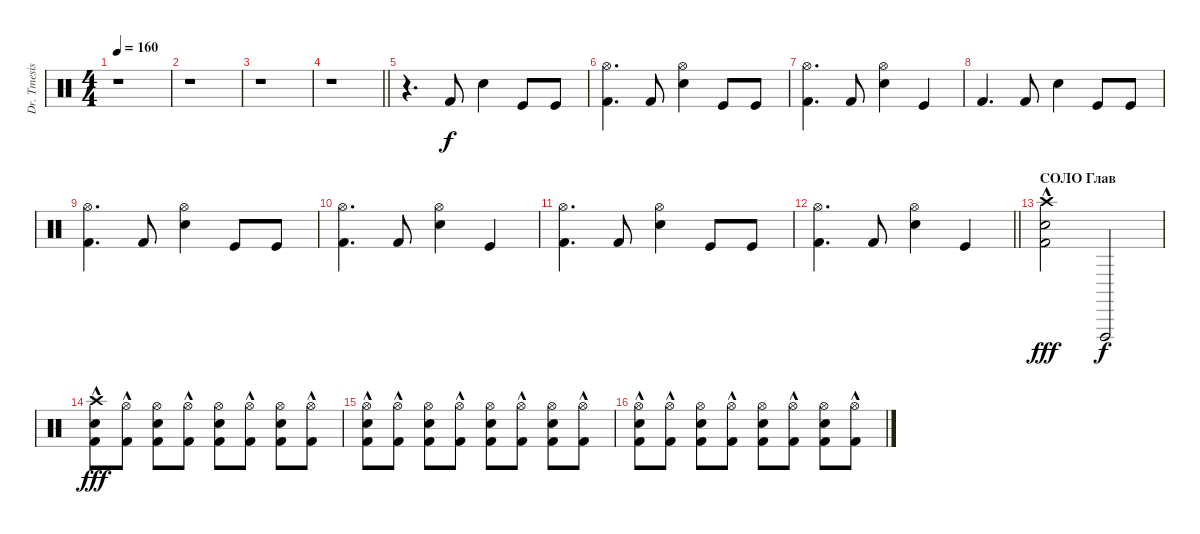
\track ("Dr. Tmesis" "Dr. Tmesis") {instrument percussion}
\staff {score}
\articulation defaults
\ts (4 4)
\tempo 160
\clef neutral
\ks c
r.1{dy f} |
r.1 |
r.1 |
\barLineRight lightlight
r.1 |
r.4{d} "Kick (hit) 2".8 "Snare (hit) 2".4 "Kick (hit)".8 "Kick (hit)".8 |
("Kick (hit) 2" "Hi-Hat (open)").4{d} "Kick (hit) 2".8 ("Snare (hit) 2" "Hi-Hat (open)").4 "Kick (hit)".8 "Kick (hit)".8 |
("Kick (hit) 2" "Hi-Hat (open)").4{d} "Kick (hit) 2".8 ("Snare (hit) 2" "Hi-Hat (open)").4 "Kick (hit)".4 |
"Kick (hit) 2".4{d} "Kick (hit) 2".8 "Snare (hit) 2".4 "Kick (hit)".8 "Kick (hit)".8 |
("Kick (hit) 2" "Hi-Hat (open)").4{d} "Kick (hit) 2".8 ("Snare (hit) 2" "Hi-Hat (open)").4 "Kick (hit)".8 "Kick (hit)".8 |
("Kick (hit) 2" "Hi-Hat (open)").4{d} "Kick (hit) 2".8 ("Snare (hit) 2" "Hi-Hat (open)").4 "Kick (hit)".4 |
("Kick (hit) 2" "Hi-Hat (open)").4{d} "Kick (hit) 2".8 ("Snare (hit) 2" "Hi-Hat (open)").4 "Kick (hit)".8 "Kick (hit)".8 |
\barLineRight lightlight
("Kick (hit) 2" "Hi-Hat (open)").4{d} "Kick (hit) 2".8 ("Snare (hit) 2" "Hi-Hat (open)").4 "Kick (hit)".4 |
\section ("" "СОЛО Глав")
("Kick (hit) 2"{hac} "Snare (hit) 2" "Crash high (hit)").2{dy fff} "Vibraslap (hit)".2{dy f} |
("Kick (hit) 2"{hac} "Snare (hit) 2" "Crash high (hit)").8{dy fff} ("Kick (hit) 2"{hac} "Hi-Hat (open)").8 ("Snare (hit) 2" "Hi-Hat (open)" "Kick (hit) 2").8 ("Kick (hit) 2"{hac} "Hi-Hat (open)").8 ("Snare (hit) 2" "Hi-Hat (open)" "Kick (hit) 2").8 ("Kick (hit) 2"{hac} "Hi-Hat (open)").8 ("Snare (hit) 2" "Hi-Hat (open)" "Kick (hit) 2").8 ("Kick (hit) 2"{hac} "Hi-Hat (open)").8 |
("Kick (hit) 2"{hac} "Snare (hit) 2" "Hi-Hat (open)").8 ("Kick (hit) 2"{hac} "Hi-Hat (open)").8 ("Snare (hit) 2" "Hi-Hat (open)" "Kick (hit) 2").8 ("Kick (hit) 2"{hac} "Hi-Hat (open)").8 ("Snare (hit) 2" "Hi-Hat (open)" "Kick (hit) 2").8 ("Kick (hit) 2"{hac} "Hi-Hat (open)").8 ("Snare (hit) 2" "Hi-Hat (open)" "Kick (hit) 2").8 ("Kick (hit) 2"{hac} "Hi-Hat (open)").8 |
("Kick (hit) 2"{hac} "Snare (hit) 2" "Hi-Hat (open)").8 ("Kick (hit) 2"{hac} "Hi-Hat (open)").8 ("Snare (hit) 2" "Hi-Hat (open)" "Kick (hit) 2").8 ("Kick (hit) 2"{hac} "Hi-Hat (open)").8 ("Snare (hit) 2" "Hi-Hat (open)" "Kick (hit) 2").8 ("Kick (hit) 2"{hac} "Hi-Hat (open)").8 ("Snare (hit) 2" "Hi-Hat (open)" "Kick (hit) 2").8 ("Kick (hit) 2"{hac} "Hi-Hat (open)").8
